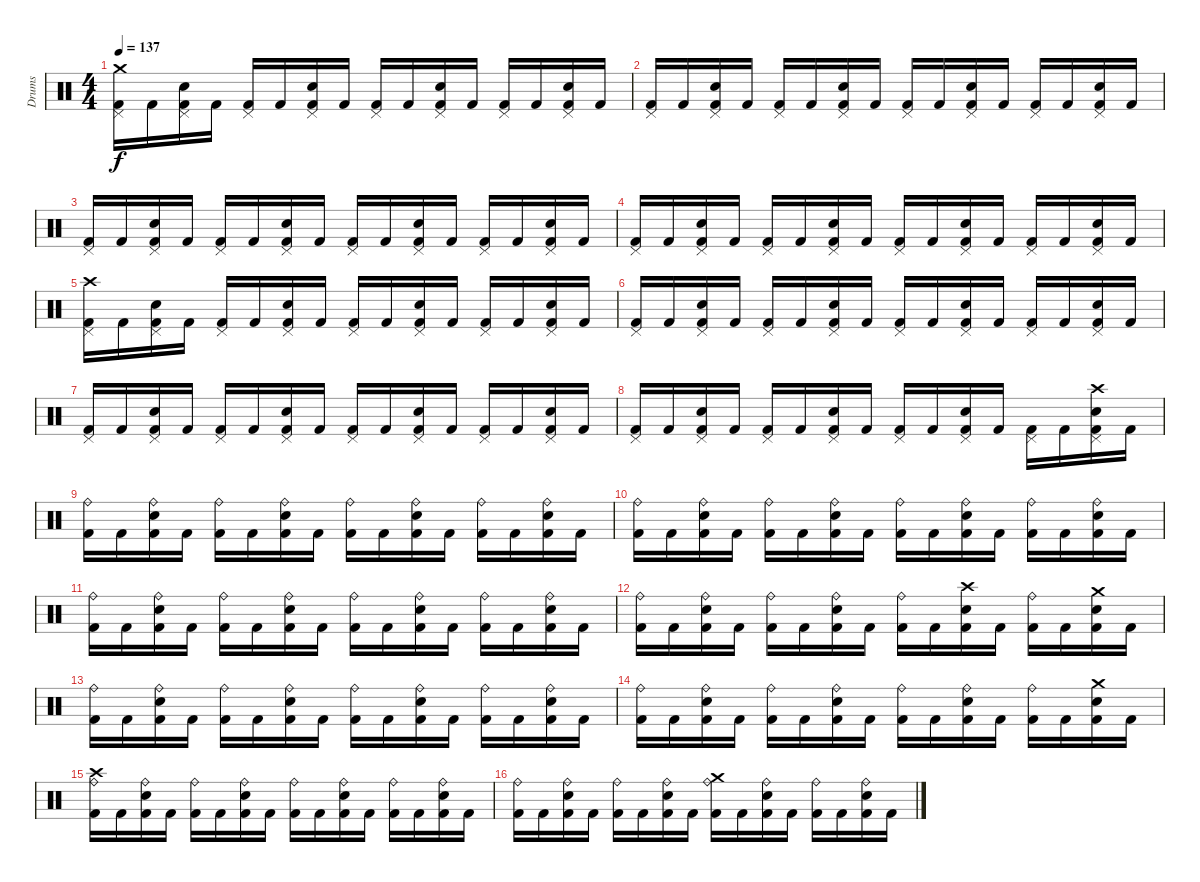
\track ("Drums" "Drums") {instrument percussion}
\staff
\articulation defaults
\ts (4 4)
\tempo 137
\clef neutral
\ks c
("Crash medium (hit)" "Pedal Hi-Hat (hit)" "Kick (hit) 2").16{dy f} "Kick (hit) 2".16 ("Pedal Hi-Hat (hit)" "Snare (hit) 2" "Kick (hit) 2").16 "Kick (hit) 2".16 ("Pedal Hi-Hat (hit)" "Kick (hit) 2").16 "Kick (hit) 2".16 ("Pedal Hi-Hat (hit)" "Snare (hit) 2" "Kick (hit) 2").16 "Kick (hit) 2".16 ("Pedal Hi-Hat (hit)" "Kick (hit) 2").16 "Kick (hit) 2".16 ("Pedal Hi-Hat (hit)" "Snare (hit) 2" "Kick (hit) 2").16 "Kick (hit) 2".16 ("Pedal Hi-Hat (hit)" "Kick (hit) 2").16 "Kick (hit) 2".16 ("Pedal Hi-Hat (hit)" "Snare (hit) 2" "Kick (hit) 2").16 "Kick (hit) 2".16 |
("Pedal Hi-Hat (hit)" "Kick (hit) 2").16 "Kick (hit) 2".16 ("Pedal Hi-Hat (hit)" "Snare (hit) 2" "Kick (hit) 2").16 "Kick (hit) 2".16 ("Pedal Hi-Hat (hit)" "Kick (hit) 2").16 "Kick (hit) 2".16 ("Pedal Hi-Hat (hit)" "Snare (hit) 2" "Kick (hit) 2").16 "Kick (hit) 2".16 ("Pedal Hi-Hat (hit)" "Kick (hit) 2").16 "Kick (hit) 2".16 ("Pedal Hi-Hat (hit)" "Snare (hit) 2" "Kick (hit) 2").16 "Kick (hit) 2".16 ("Pedal Hi-Hat (hit)" "Kick (hit) 2").16 "Kick (hit) 2".16 ("Pedal Hi-Hat (hit)" "Snare (hit) 2" "Kick (hit) 2").16 "Kick (hit) 2".16 |
("Pedal Hi-Hat (hit)" "Kick (hit) 2").16 "Kick (hit) 2".16 ("Pedal Hi-Hat (hit)" "Snare (hit) 2" "Kick (hit) 2").16 "Kick (hit) 2".16 ("Pedal Hi-Hat (hit)" "Kick (hit) 2").16 "Kick (hit) 2".16 ("Pedal Hi-Hat (hit)" "Snare (hit) 2" "Kick (hit) 2").16 "Kick (hit) 2".16 ("Pedal Hi-Hat (hit)" "Kick (hit) 2").16 "Kick (hit) 2".16 ("Pedal Hi-Hat (hit)" "Snare (hit) 2" "Kick (hit) 2").16 "Kick (hit) 2".16 ("Pedal Hi-Hat (hit)" "Kick (hit) 2").16 "Kick (hit) 2".16 ("Pedal Hi-Hat (hit)" "Snare (hit) 2" "Kick (hit) 2").16 "Kick (hit) 2".16 |
("Pedal Hi-Hat (hit)" "Kick (hit) 2").16 "Kick (hit) 2".16 ("Pedal Hi-Hat (hit)" "Snare (hit) 2" "Kick (hit) 2").16 "Kick (hit) 2".16 ("Pedal Hi-Hat (hit)" "Kick (hit) 2").16 "Kick (hit) 2".16 ("Pedal Hi-Hat (hit)" "Snare (hit) 2" "Kick (hit) 2").16 "Kick (hit) 2".16 ("Pedal Hi-Hat (hit)" "Kick (hit) 2").16 "Kick (hit) 2".16 ("Pedal Hi-Hat (hit)" "Snare (hit) 2" "Kick (hit) 2").16 "Kick (hit) 2".16 ("Pedal Hi-Hat (hit)" "Kick (hit) 2").16 "Kick (hit) 2".16 ("Pedal Hi-Hat (hit)" "Snare (hit) 2" "Kick (hit) 2").16 "Kick (hit) 2".16 |
("Crash high (hit)" "Pedal Hi-Hat (hit)" "Kick (hit) 2").16 "Kick (hit) 2".16 ("Pedal Hi-Hat (hit)" "Snare (hit) 2" "Kick (hit) 2").16 "Kick (hit) 2".16 ("Pedal Hi-Hat (hit)" "Kick (hit) 2").16 "Kick (hit) 2".16 ("Pedal Hi-Hat (hit)" "Snare (hit) 2" "Kick (hit) 2").16 "Kick (hit) 2".16 ("Pedal Hi-Hat (hit)" "Kick (hit) 2").16 "Kick (hit) 2".16 ("Pedal Hi-Hat (hit)" "Snare (hit) 2" "Kick (hit) 2").16 "Kick (hit) 2".16 ("Pedal Hi-Hat (hit)" "Kick (hit) 2").16 "Kick (hit) 2".16 ("Pedal Hi-Hat (hit)" "Snare (hit) 2" "Kick (hit) 2").16 "Kick (hit) 2".16 |
("Pedal Hi-Hat (hit)" "Kick (hit) 2").16 "Kick (hit) 2".16 ("Pedal Hi-Hat (hit)" "Snare (hit) 2" "Kick (hit) 2").16 "Kick (hit) 2".16 ("Pedal Hi-Hat (hit)" "Kick (hit) 2").16 "Kick (hit) 2".16 ("Pedal Hi-Hat (hit)" "Snare (hit) 2" "Kick (hit) 2").16 "Kick (hit) 2".16 ("Pedal Hi-Hat (hit)" "Kick (hit) 2").16 "Kick (hit) 2".16 ("Pedal Hi-Hat (hit)" "Snare (hit) 2" "Kick (hit) 2").16 "Kick (hit) 2".16 ("Pedal Hi-Hat (hit)" "Kick (hit) 2").16 "Kick (hit) 2".16 ("Pedal Hi-Hat (hit)" "Snare (hit) 2" "Kick (hit) 2").16 "Kick (hit) 2".16 |
("Pedal Hi-Hat (hit)" "Kick (hit) 2").16 "Kick (hit) 2".16 ("Pedal Hi-Hat (hit)" "Snare (hit) 2" "Kick (hit) 2").16 "Kick (hit) 2".16 ("Pedal Hi-Hat (hit)" "Kick (hit) 2").16 "Kick (hit) 2".16 ("Pedal Hi-Hat (hit)" "Snare (hit) 2" "Kick (hit) 2").16 "Kick (hit) 2".16 ("Pedal Hi-Hat (hit)" "Kick (hit) 2").16 "Kick (hit) 2".16 ("Pedal Hi-Hat (hit)" "Snare (hit) 2" "Kick (hit) 2").16 "Kick (hit) 2".16 ("Pedal Hi-Hat (hit)" "Kick (hit) 2").16 "Kick (hit) 2".16 ("Pedal Hi-Hat (hit)" "Snare (hit) 2" "Kick (hit) 2").16 "Kick (hit) 2".16 |
("Pedal Hi-Hat (hit)" "Kick (hit) 2").16 "Kick (hit) 2".16 ("Pedal Hi-Hat (hit)" "Snare (hit) 2" "Kick (hit) 2").16 "Kick (hit) 2".16 ("Pedal Hi-Hat (hit)" "Kick (hit) 2").16 "Kick (hit) 2".16 ("Pedal Hi-Hat (hit)" "Snare (hit) 2" "Kick (hit) 2").16 "Kick (hit) 2".16 ("Pedal Hi-Hat (hit)" "Kick (hit) 2").16 "Kick (hit) 2".16 ("Pedal Hi-Hat (hit)" "Snare (hit) 2" "Kick (hit) 2").16 "Kick (hit) 2".16 ("Pedal Hi-Hat (hit)" "Kick (hit) 2").16 "Kick (hit) 2".16 ("Crash high (hit)" "Pedal Hi-Hat (hit)" "Snare (hit) 2" "Kick (hit) 2").16 "Kick (hit) 2".16 |
("Ride (bell)" "Kick (hit) 2").16 "Kick (hit) 2".16 ("Ride (bell)" "Snare (hit) 2" "Kick (hit) 2").16 "Kick (hit) 2".16 ("Ride (bell)" "Kick (hit) 2").16 "Kick (hit) 2".16 ("Ride (bell)" "Snare (hit) 2" "Kick (hit) 2").16 "Kick (hit) 2".16 ("Ride (bell)" "Kick (hit) 2").16 "Kick (hit) 2".16 ("Ride (bell)" "Snare (hit) 2" "Kick (hit) 2").16 "Kick (hit) 2".16 ("Ride (bell)" "Kick (hit) 2").16 "Kick (hit) 2".16 ("Ride (bell)" "Snare (hit) 2" "Kick (hit) 2").16 "Kick (hit) 2".16 |
("Ride (bell)" "Kick (hit) 2").16 "Kick (hit) 2".16 ("Ride (bell)" "Snare (hit) 2" "Kick (hit) 2").16 "Kick (hit) 2".16 ("Ride (bell)" "Kick (hit) 2").16 "Kick (hit) 2".16 ("Ride (bell)" "Snare (hit) 2" "Kick (hit) 2").16 "Kick (hit) 2".16 ("Ride (bell)" "Kick (hit) 2").16 "Kick (hit) 2".16 ("Ride (bell)" "Snare (hit) 2" "Kick (hit) 2").16 "Kick (hit) 2".16 ("Ride (bell)" "Kick (hit) 2").16 "Kick (hit) 2".16 ("Ride (bell)" "Snare (hit) 2" "Kick (hit) 2").16 "Kick (hit) 2".16 |
("Ride (bell)" "Kick (hit) 2").16 "Kick (hit) 2".16 ("Ride (bell)" "Snare (hit) 2" "Kick (hit) 2").16 "Kick (hit) 2".16 ("Ride (bell)" "Kick (hit) 2").16 "Kick (hit) 2".16 ("Ride (bell)" "Snare (hit) 2" "Kick (hit) 2").16 "Kick (hit) 2".16 ("Ride (bell)" "Kick (hit) 2").16 "Kick (hit) 2".16 ("Ride (bell)" "Snare (hit) 2" "Kick (hit) 2").16 "Kick (hit) 2".16 ("Ride (bell)" "Kick (hit) 2").16 "Kick (hit) 2".16 ("Ride (bell)" "Snare (hit) 2" "Kick (hit) 2").16 "Kick (hit) 2".16 |
("Ride (bell)" "Kick (hit) 2").16 "Kick (hit) 2".16 ("Ride (bell)" "Snare (hit) 2" "Kick (hit) 2").16 "Kick (hit) 2".16 ("Ride (bell)" "Kick (hit) 2").16 "Kick (hit) 2".16 ("Ride (bell)" "Snare (hit) 2" "Kick (hit) 2").16 "Kick (hit) 2".16 ("Ride (bell)" "Kick (hit) 2").16 "Kick (hit) 2".16 ("Crash high (hit)" "Snare (hit) 2" "Kick (hit) 2").16 "Kick (hit) 2".16 ("Ride (bell)" "Kick (hit) 2").16 "Kick (hit) 2".16 ("Crash medium (hit)" "Snare (hit) 2" "Kick (hit) 2").16 "Kick (hit) 2".16 |
("Ride (bell)" "Kick (hit) 2").16 "Kick (hit) 2".16 ("Ride (bell)" "Snare (hit) 2" "Kick (hit) 2").16 "Kick (hit) 2".16 ("Ride (bell)" "Kick (hit) 2").16 "Kick (hit) 2".16 ("Ride (bell)" "Snare (hit) 2" "Kick (hit) 2").16 "Kick (hit) 2".16 ("Ride (bell)" "Kick (hit) 2").16 "Kick (hit) 2".16 ("Ride (bell)" "Snare (hit) 2" "Kick (hit) 2").16 "Kick (hit) 2".16 ("Ride (bell)" "Kick (hit) 2").16 "Kick (hit) 2".16 ("Ride (bell)" "Snare (hit) 2" "Kick (hit) 2").16 "Kick (hit) 2".16 |
("Ride (bell)" "Kick (hit) 2").16 "Kick (hit) 2".16 ("Ride (bell)" "Snare (hit) 2" "Kick (hit) 2").16 "Kick (hit) 2".16 ("Ride (bell)" "Kick (hit) 2").16 "Kick (hit) 2".16 ("Ride (bell)" "Snare (hit) 2" "Kick (hit) 2").16 "Kick (hit) 2".16 ("Ride (bell)" "Kick (hit) 2").16 "Kick (hit) 2".16 ("Ride (bell)" "Snare (hit) 2" "Kick (hit) 2").16 "Kick (hit) 2".16 ("Ride (bell)" "Kick (hit) 2").16 "Kick (hit) 2".16 ("Crash medium (hit)" "Snare (hit) 2" "Kick (hit) 2").16 "Kick (hit) 2".16 |
("Crash high (hit)" "Ride (bell)" "Kick (hit) 2").16 "Kick (hit) 2".16 ("Ride (bell)" "Snare (hit) 2" "Kick (hit) 2").16 "Kick (hit) 2".16 ("Ride (bell)" "Kick (hit) 2").16 "Kick (hit) 2".16 ("Ride (bell)" "Snare (hit) 2" "Kick (hit) 2").16 "Kick (hit) 2".16 ("Ride (bell)" "Kick (hit) 2").16 "Kick (hit) 2".16 ("Ride (bell)" "Snare (hit) 2" "Kick (hit) 2").16 "Kick (hit) 2".16 ("Ride (bell)" "Kick (hit) 2").16 "Kick (hit) 2".16 ("Ride (bell)" "Snare (hit) 2" "Kick (hit) 2").16 "Kick (hit) 2".16 |
("Ride (bell)" "Kick (hit) 2").16 "Kick (hit) 2".16 ("Ride (bell)" "Snare (hit) 2" "Kick (hit) 2").16 "Kick (hit) 2".16 ("Ride (bell)" "Kick (hit) 2").16 "Kick (hit) 2".16 ("Ride (bell)" "Snare (hit) 2" "Kick (hit) 2").16 "Kick (hit) 2".16 ("Crash medium (hit)" "Ride (bell)" "Kick (hit) 2").16 "Kick (hit) 2".16 ("Ride (bell)" "Snare (hit) 2" "Kick (hit) 2").16 "Kick (hit) 2".16 ("Ride (bell)" "Kick (hit) 2").16 "Kick (hit) 2".16 ("Ride (bell)" "Snare (hit) 2" "Kick (hit) 2").16 "Kick (hit) 2".16
